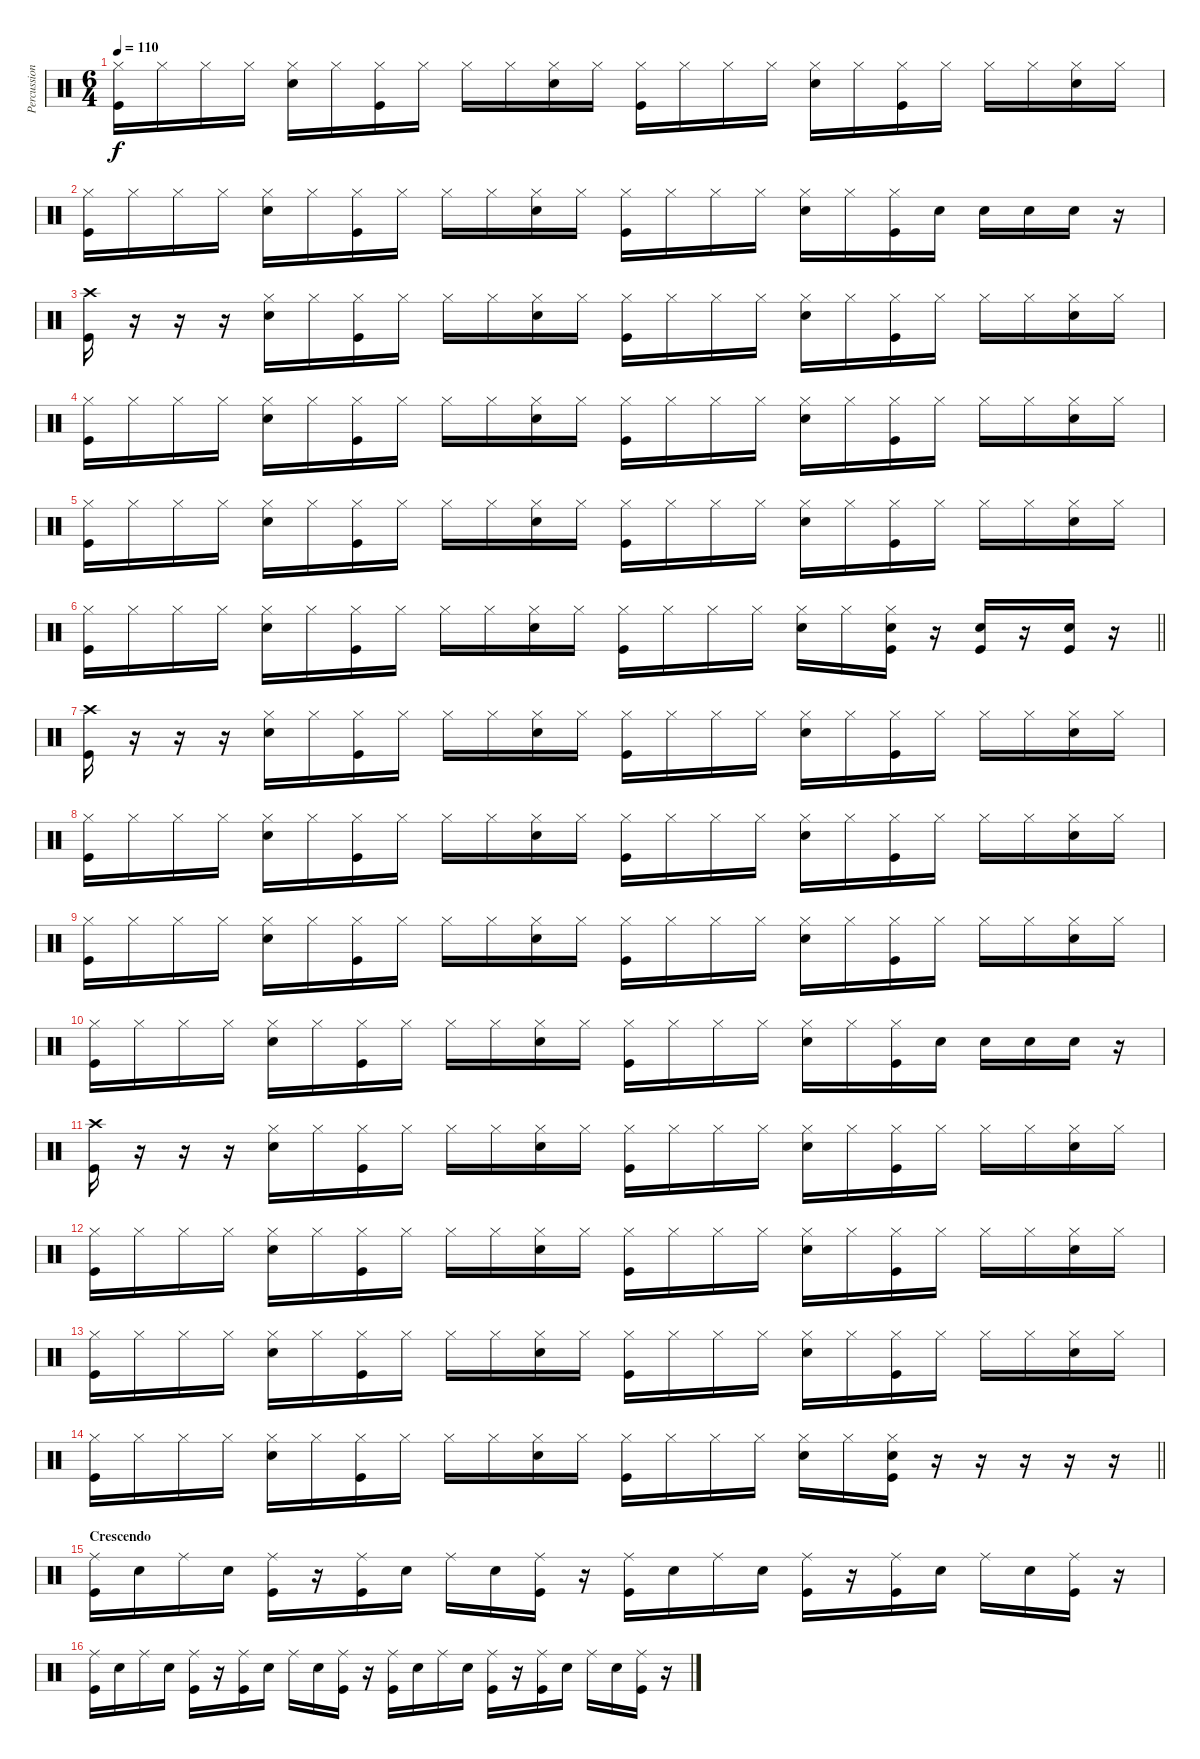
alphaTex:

\track ("Percussion 2" "Percussion") {instrument percussion}
\staff {score}
\articulation defaults
\ts (6 4)
\tempo 110
\clef neutral
\ks c
("Hi-Hat (closed)" "Kick (hit)").16{dy f} "Hi-Hat (closed)".16 "Hi-Hat (closed)".16 "Hi-Hat (closed)".16 ("Hi-Hat (closed)" "Snare (hit) 2").16 "Hi-Hat (closed)".16 ("Hi-Hat (closed)" "Kick (hit)").16 "Hi-Hat (closed)".16 "Hi-Hat (closed)".16 "Hi-Hat (closed)".16 ("Hi-Hat (closed)" "Snare (hit) 2").16 "Hi-Hat (closed)".16 ("Hi-Hat (closed)" "Kick (hit)").16 "Hi-Hat (closed)".16 "Hi-Hat (closed)".16 "Hi-Hat (closed)".16 ("Hi-Hat (closed)" "Snare (hit) 2").16 "Hi-Hat (closed)".16 ("Hi-Hat (closed)" "Kick (hit)").16 "Hi-Hat (closed)".16 "Hi-Hat (closed)".16 "Hi-Hat (closed)".16 ("Hi-Hat (closed)" "Snare (hit) 2").16 "Hi-Hat (closed)".16 |
("Hi-Hat (closed)" "Kick (hit)").16 "Hi-Hat (closed)".16 "Hi-Hat (closed)".16 "Hi-Hat (closed)".16 ("Hi-Hat (closed)" "Snare (hit) 2").16 "Hi-Hat (closed)".16 ("Hi-Hat (closed)" "Kick (hit)").16 "Hi-Hat (closed)".16 "Hi-Hat (closed)".16 "Hi-Hat (closed)".16 ("Hi-Hat (closed)" "Snare (hit) 2").16 "Hi-Hat (closed)".16 ("Hi-Hat (closed)" "Kick (hit)").16 "Hi-Hat (closed)".16 "Hi-Hat (closed)".16 "Hi-Hat (closed)".16 ("Hi-Hat (closed)" "Snare (hit) 2").16 "Hi-Hat (closed)".16 ("Hi-Hat (closed)" "Kick (hit)").16 "Snare (hit) 2".16 "Snare (hit) 2".16 "Snare (hit) 2".16 "Snare (hit) 2".16 r.16 |
("Crash high (hit)" "Kick (hit)").16 r.16 r.16 r.16 ("Hi-Hat (closed)" "Snare (hit) 2").16 "Hi-Hat (closed)".16 ("Hi-Hat (closed)" "Kick (hit)").16 "Hi-Hat (closed)".16 "Hi-Hat (closed)".16 "Hi-Hat (closed)".16 ("Hi-Hat (closed)" "Snare (hit) 2").16 "Hi-Hat (closed)".16 ("Hi-Hat (closed)" "Kick (hit)").16 "Hi-Hat (closed)".16 "Hi-Hat (closed)".16 "Hi-Hat (closed)".16 ("Hi-Hat (closed)" "Snare (hit) 2").16 "Hi-Hat (closed)".16 ("Hi-Hat (closed)" "Kick (hit)").16 "Hi-Hat (closed)".16 "Hi-Hat (closed)".16 "Hi-Hat (closed)".16 ("Hi-Hat (closed)" "Snare (hit) 2").16 "Hi-Hat (closed)".16 |
("Hi-Hat (closed)" "Kick (hit)").16 "Hi-Hat (closed)".16 "Hi-Hat (closed)".16 "Hi-Hat (closed)".16 ("Hi-Hat (closed)" "Snare (hit) 2").16 "Hi-Hat (closed)".16 ("Hi-Hat (closed)" "Kick (hit)").16 "Hi-Hat (closed)".16 "Hi-Hat (closed)".16 "Hi-Hat (closed)".16 ("Hi-Hat (closed)" "Snare (hit) 2").16 "Hi-Hat (closed)".16 ("Hi-Hat (closed)" "Kick (hit)").16 "Hi-Hat (closed)".16 "Hi-Hat (closed)".16 "Hi-Hat (closed)".16 ("Hi-Hat (closed)" "Snare (hit) 2").16 "Hi-Hat (closed)".16 ("Hi-Hat (closed)" "Kick (hit)").16 "Hi-Hat (closed)".16 "Hi-Hat (closed)".16 "Hi-Hat (closed)".16 ("Hi-Hat (closed)" "Snare (hit) 2").16 "Hi-Hat (closed)".16 |
("Hi-Hat (closed)" "Kick (hit)").16 "Hi-Hat (closed)".16 "Hi-Hat (closed)".16 "Hi-Hat (closed)".16 ("Hi-Hat (closed)" "Snare (hit) 2").16 "Hi-Hat (closed)".16 ("Hi-Hat (closed)" "Kick (hit)").16 "Hi-Hat (closed)".16 "Hi-Hat (closed)".16 "Hi-Hat (closed)".16 ("Hi-Hat (closed)" "Snare (hit) 2").16 "Hi-Hat (closed)".16 ("Hi-Hat (closed)" "Kick (hit)").16 "Hi-Hat (closed)".16 "Hi-Hat (closed)".16 "Hi-Hat (closed)".16 ("Hi-Hat (closed)" "Snare (hit) 2").16 "Hi-Hat (closed)".16 ("Hi-Hat (closed)" "Kick (hit)").16 "Hi-Hat (closed)".16 "Hi-Hat (closed)".16 "Hi-Hat (closed)".16 ("Hi-Hat (closed)" "Snare (hit) 2").16 "Hi-Hat (closed)".16 |
\barLineRight lightlight
("Hi-Hat (closed)" "Kick (hit)").16 "Hi-Hat (closed)".16 "Hi-Hat (closed)".16 "Hi-Hat (closed)".16 ("Hi-Hat (closed)" "Snare (hit) 2").16 "Hi-Hat (closed)".16 ("Hi-Hat (closed)" "Kick (hit)").16 "Hi-Hat (closed)".16 "Hi-Hat (closed)".16 "Hi-Hat (closed)".16 ("Hi-Hat (closed)" "Snare (hit) 2").16 "Hi-Hat (closed)".16 ("Hi-Hat (closed)" "Kick (hit)").16 "Hi-Hat (closed)".16 "Hi-Hat (closed)".16 "Hi-Hat (closed)".16 ("Hi-Hat (closed)" "Snare (hit) 2").16 "Hi-Hat (closed)".16 ("Hi-Hat (closed)" "Snare (hit) 2" "Kick (hit)").16 r.16 ("Snare (hit) 2" "Kick (hit)").16 r.16 ("Snare (hit) 2" "Kick (hit)").16 r.16 |
("Crash high (hit)" "Kick (hit)").16 r.16 r.16 r.16 ("Hi-Hat (closed)" "Snare (hit) 2").16 "Hi-Hat (closed)".16 ("Hi-Hat (closed)" "Kick (hit)").16 "Hi-Hat (closed)".16 "Hi-Hat (closed)".16 "Hi-Hat (closed)".16 ("Hi-Hat (closed)" "Snare (hit) 2").16 "Hi-Hat (closed)".16 ("Hi-Hat (closed)" "Kick (hit)").16 "Hi-Hat (closed)".16 "Hi-Hat (closed)".16 "Hi-Hat (closed)".16 ("Hi-Hat (closed)" "Snare (hit) 2").16 "Hi-Hat (closed)".16 ("Hi-Hat (closed)" "Kick (hit)").16 "Hi-Hat (closed)".16 "Hi-Hat (closed)".16 "Hi-Hat (closed)".16 ("Hi-Hat (closed)" "Snare (hit) 2").16 "Hi-Hat (closed)".16 |
("Hi-Hat (closed)" "Kick (hit)").16 "Hi-Hat (closed)".16 "Hi-Hat (closed)".16 "Hi-Hat (closed)".16 ("Hi-Hat (closed)" "Snare (hit) 2").16 "Hi-Hat (closed)".16 ("Hi-Hat (closed)" "Kick (hit)").16 "Hi-Hat (closed)".16 "Hi-Hat (closed)".16 "Hi-Hat (closed)".16 ("Hi-Hat (closed)" "Snare (hit) 2").16 "Hi-Hat (closed)".16 ("Hi-Hat (closed)" "Kick (hit)").16 "Hi-Hat (closed)".16 "Hi-Hat (closed)".16 "Hi-Hat (closed)".16 ("Hi-Hat (closed)" "Snare (hit) 2").16 "Hi-Hat (closed)".16 ("Hi-Hat (closed)" "Kick (hit)").16 "Hi-Hat (closed)".16 "Hi-Hat (closed)".16 "Hi-Hat (closed)".16 ("Hi-Hat (closed)" "Snare (hit) 2").16 "Hi-Hat (closed)".16 |
("Hi-Hat (closed)" "Kick (hit)").16 "Hi-Hat (closed)".16 "Hi-Hat (closed)".16 "Hi-Hat (closed)".16 ("Hi-Hat (closed)" "Snare (hit) 2").16 "Hi-Hat (closed)".16 ("Hi-Hat (closed)" "Kick (hit)").16 "Hi-Hat (closed)".16 "Hi-Hat (closed)".16 "Hi-Hat (closed)".16 ("Hi-Hat (closed)" "Snare (hit) 2").16 "Hi-Hat (closed)".16 ("Hi-Hat (closed)" "Kick (hit)").16 "Hi-Hat (closed)".16 "Hi-Hat (closed)".16 "Hi-Hat (closed)".16 ("Hi-Hat (closed)" "Snare (hit) 2").16 "Hi-Hat (closed)".16 ("Hi-Hat (closed)" "Kick (hit)").16 "Hi-Hat (closed)".16 "Hi-Hat (closed)".16 "Hi-Hat (closed)".16 ("Hi-Hat (closed)" "Snare (hit) 2").16 "Hi-Hat (closed)".16 |
("Hi-Hat (closed)" "Kick (hit)").16 "Hi-Hat (closed)".16 "Hi-Hat (closed)".16 "Hi-Hat (closed)".16 ("Hi-Hat (closed)" "Snare (hit) 2").16 "Hi-Hat (closed)".16 ("Hi-Hat (closed)" "Kick (hit)").16 "Hi-Hat (closed)".16 "Hi-Hat (closed)".16 "Hi-Hat (closed)".16 ("Hi-Hat (closed)" "Snare (hit) 2").16 "Hi-Hat (closed)".16 ("Hi-Hat (closed)" "Kick (hit)").16 "Hi-Hat (closed)".16 "Hi-Hat (closed)".16 "Hi-Hat (closed)".16 ("Hi-Hat (closed)" "Snare (hit) 2").16 "Hi-Hat (closed)".16 ("Hi-Hat (closed)" "Kick (hit)").16 "Snare (hit) 2".16 "Snare (hit) 2".16 "Snare (hit) 2".16 "Snare (hit) 2".16 r.16 |
("Crash high (hit)" "Kick (hit)").16 r.16 r.16 r.16 ("Hi-Hat (closed)" "Snare (hit) 2").16 "Hi-Hat (closed)".16 ("Hi-Hat (closed)" "Kick (hit)").16 "Hi-Hat (closed)".16 "Hi-Hat (closed)".16 "Hi-Hat (closed)".16 ("Hi-Hat (closed)" "Snare (hit) 2").16 "Hi-Hat (closed)".16 ("Hi-Hat (closed)" "Kick (hit)").16 "Hi-Hat (closed)".16 "Hi-Hat (closed)".16 "Hi-Hat (closed)".16 ("Hi-Hat (closed)" "Snare (hit) 2").16 "Hi-Hat (closed)".16 ("Hi-Hat (closed)" "Kick (hit)").16 "Hi-Hat (closed)".16 "Hi-Hat (closed)".16 "Hi-Hat (closed)".16 ("Hi-Hat (closed)" "Snare (hit) 2").16 "Hi-Hat (closed)".16 |
("Hi-Hat (closed)" "Kick (hit)").16 "Hi-Hat (closed)".16 "Hi-Hat (closed)".16 "Hi-Hat (closed)".16 ("Hi-Hat (closed)" "Snare (hit) 2").16 "Hi-Hat (closed)".16 ("Hi-Hat (closed)" "Kick (hit)").16 "Hi-Hat (closed)".16 "Hi-Hat (closed)".16 "Hi-Hat (closed)".16 ("Hi-Hat (closed)" "Snare (hit) 2").16 "Hi-Hat (closed)".16 ("Hi-Hat (closed)" "Kick (hit)").16 "Hi-Hat (closed)".16 "Hi-Hat (closed)".16 "Hi-Hat (closed)".16 ("Hi-Hat (closed)" "Snare (hit) 2").16 "Hi-Hat (closed)".16 ("Hi-Hat (closed)" "Kick (hit)").16 "Hi-Hat (closed)".16 "Hi-Hat (closed)".16 "Hi-Hat (closed)".16 ("Hi-Hat (closed)" "Snare (hit) 2").16 "Hi-Hat (closed)".16 |
("Hi-Hat (closed)" "Kick (hit)").16 "Hi-Hat (closed)".16 "Hi-Hat (closed)".16 "Hi-Hat (closed)".16 ("Hi-Hat (closed)" "Snare (hit) 2").16 "Hi-Hat (closed)".16 ("Hi-Hat (closed)" "Kick (hit)").16 "Hi-Hat (closed)".16 "Hi-Hat (closed)".16 "Hi-Hat (closed)".16 ("Hi-Hat (closed)" "Snare (hit) 2").16 "Hi-Hat (closed)".16 ("Hi-Hat (closed)" "Kick (hit)").16 "Hi-Hat (closed)".16 "Hi-Hat (closed)".16 "Hi-Hat (closed)".16 ("Hi-Hat (closed)" "Snare (hit) 2").16 "Hi-Hat (closed)".16 ("Hi-Hat (closed)" "Kick (hit)").16 "Hi-Hat (closed)".16 "Hi-Hat (closed)".16 "Hi-Hat (closed)".16 ("Hi-Hat (closed)" "Snare (hit) 2").16 "Hi-Hat (closed)".16 |
\barLineRight lightlight
("Hi-Hat (closed)" "Kick (hit)").16 "Hi-Hat (closed)".16 "Hi-Hat (closed)".16 "Hi-Hat (closed)".16 ("Hi-Hat (closed)" "Snare (hit) 2").16 "Hi-Hat (closed)".16 ("Hi-Hat (closed)" "Kick (hit)").16 "Hi-Hat (closed)".16 "Hi-Hat (closed)".16 "Hi-Hat (closed)".16 ("Hi-Hat (closed)" "Snare (hit) 2").16 "Hi-Hat (closed)".16 ("Hi-Hat (closed)" "Kick (hit)").16 "Hi-Hat (closed)".16 "Hi-Hat (closed)".16 "Hi-Hat (closed)".16 ("Hi-Hat (closed)" "Snare (hit) 2").16 "Hi-Hat (closed)".16 ("Hi-Hat (closed)" "Snare (hit) 2" "Kick (hit)").16 r.16 r.16 r.16 r.16 r.16 |
\section ("" "Crescendo")
("Ride (middle)" "Kick (hit)").16 "Snare (hit) 2".16 "Ride (middle)".16 "Snare (hit) 2".16 ("Ride (middle)" "Kick (hit)").16 r.16 ("Ride (middle)" "Kick (hit)").16 "Snare (hit) 2".16 "Ride (middle)".16 "Snare (hit) 2".16 ("Ride (middle)" "Kick (hit)").16 r.16 ("Ride (middle)" "Kick (hit)").16 "Snare (hit) 2".16 "Ride (middle)".16 "Snare (hit) 2".16 ("Ride (middle)" "Kick (hit)").16 r.16 ("Ride (middle)" "Kick (hit)").16 "Snare (hit) 2".16 "Ride (middle)".16 "Snare (hit) 2".16 ("Ride (middle)" "Kick (hit)").16 r.16 |
("Ride (middle)" "Kick (hit)").16 "Snare (hit) 2".16 "Ride (middle)".16 "Snare (hit) 2".16 ("Ride (middle)" "Kick (hit)").16 r.16 ("Ride (middle)" "Kick (hit)").16 "Snare (hit) 2".16 "Ride (middle)".16 "Snare (hit) 2".16 ("Ride (middle)" "Kick (hit)").16 r.16 ("Ride (middle)" "Kick (hit)").16 "Snare (hit) 2".16 "Ride (middle)".16 "Snare (hit) 2".16 ("Ride (middle)" "Kick (hit)").16 r.16 ("Ride (middle)" "Kick (hit)").16 "Snare (hit) 2".16 "Ride (middle)".16 "Snare (hit) 2".16 ("Ride (middle)" "Kick (hit)").16 r.16
